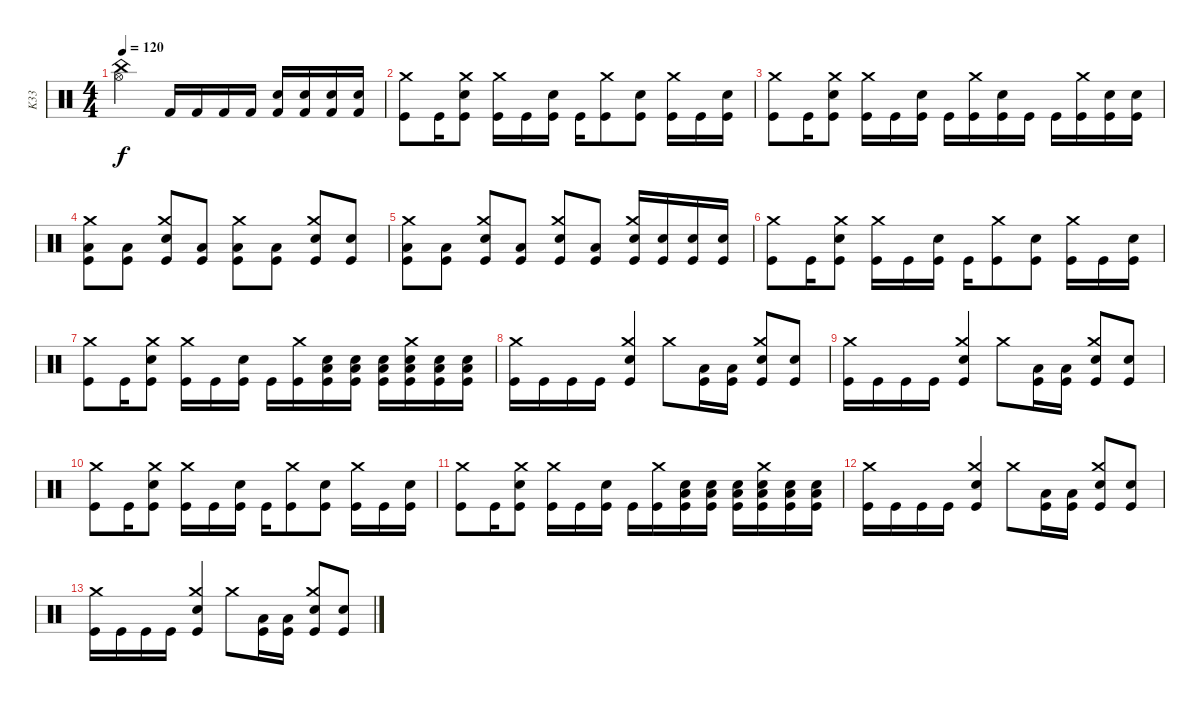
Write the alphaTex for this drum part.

\track ("K33" "K33") {instrument percussion}
\staff {score}
\articulation defaults
\ts (4 4)
\tempo 120
\clef neutral
\ks c
("China (hit)" "Hi-Hat (open)").2{dy f} "Kick (hit) 2".16 "Kick (hit) 2".16 "Kick (hit) 2".16 "Kick (hit) 2".16 ("Electric Snare (hit)" "Kick (hit) 2").16 ("Electric Snare (hit)" "Kick (hit) 2").16 ("Electric Snare (hit)" "Kick (hit) 2").16 ("Electric Snare (hit)" "Kick (hit) 2").16 |
("Crash medium (hit)" "Kick (hit)").8 "Kick (hit)".16 ("Crash medium (hit)" "Electric Snare (hit)" "Kick (hit)").8 ("Crash medium (hit)" "Kick (hit)").16 "Kick (hit)".16 ("Electric Snare (hit)" "Kick (hit)").16 "Kick (hit)".16 ("Crash medium (hit)" "Kick (hit)").8 ("Electric Snare (hit)" "Kick (hit)").8 ("Crash medium (hit)" "Kick (hit)").16 "Kick (hit)".16 ("Electric Snare (hit)" "Kick (hit)").16 |
("Crash medium (hit)" "Kick (hit)").8 "Kick (hit)".16 ("Crash medium (hit)" "Electric Snare (hit)" "Kick (hit)").8 ("Crash medium (hit)" "Kick (hit)").16 "Kick (hit)".16 ("Electric Snare (hit)" "Kick (hit)").16 "Kick (hit)".16 ("Crash medium (hit)" "Kick (hit)").16 ("Electric Snare (hit)" "Kick (hit)").16 "Kick (hit)".16 "Kick (hit)".16 ("Crash medium (hit)" "Kick (hit)").16 ("Electric Snare (hit)" "Kick (hit)").16 ("Electric Snare (hit)" "Kick (hit)").16 |
("Crash medium (hit)" "Low Floor Tom (hit)" "Kick (hit)").8 ("Low Floor Tom (hit)" "Kick (hit)").8 ("Crash medium (hit)" "Electric Snare (hit)" "Kick (hit)").8 ("Low Floor Tom (hit)" "Kick (hit)").8 ("Crash medium (hit)" "Low Floor Tom (hit)" "Kick (hit)").8 ("Low Floor Tom (hit)" "Kick (hit)").8 ("Crash medium (hit)" "Electric Snare (hit)" "Kick (hit)").8 ("Electric Snare (hit)" "Kick (hit)").8 |
("Crash medium (hit)" "Low Floor Tom (hit)" "Kick (hit)").8 ("Low Floor Tom (hit)" "Kick (hit)").8 ("Crash medium (hit)" "Electric Snare (hit)" "Kick (hit)").8 ("Low Floor Tom (hit)" "Kick (hit)").8 ("Crash medium (hit)" "Electric Snare (hit)" "Kick (hit)").8 ("Low Floor Tom (hit)" "Kick (hit)").8 ("Crash medium (hit)" "Electric Snare (hit)" "Kick (hit)").16 ("Electric Snare (hit)" "Kick (hit)").16 ("Electric Snare (hit)" "Kick (hit)").16 ("Electric Snare (hit)" "Kick (hit)").16 |
("Crash medium (hit)" "Kick (hit)").8 "Kick (hit)".16 ("Crash medium (hit)" "Electric Snare (hit)" "Kick (hit)").8 ("Crash medium (hit)" "Kick (hit)").16 "Kick (hit)".16 ("Electric Snare (hit)" "Kick (hit)").16 "Kick (hit)".16 ("Crash medium (hit)" "Kick (hit)").8 ("Electric Snare (hit)" "Kick (hit)").8 ("Crash medium (hit)" "Kick (hit)").16 "Kick (hit)".16 ("Electric Snare (hit)" "Kick (hit)").16 |
("Crash medium (hit)" "Kick (hit)").8 "Kick (hit)".16 ("Crash medium (hit)" "Electric Snare (hit)" "Kick (hit)").8 ("Crash medium (hit)" "Kick (hit)").16 "Kick (hit)".16 ("Electric Snare (hit)" "Kick (hit)").16 "Kick (hit)".16 ("Crash medium (hit)" "Kick (hit)").16 ("Low Floor Tom (hit)" "Electric Snare (hit)" "Kick (hit)").16 ("Low Floor Tom (hit)" "Electric Snare (hit)" "Kick (hit)").16 ("Low Floor Tom (hit)" "Electric Snare (hit)" "Kick (hit)").16 ("Crash medium (hit)" "Low Floor Tom (hit)" "Electric Snare (hit)" "Kick (hit)").16 ("Low Floor Tom (hit)" "Electric Snare (hit)" "Kick (hit)").16 ("Low Floor Tom (hit)" "Electric Snare (hit)" "Kick (hit)").16 |
("Crash medium (hit)" "Kick (hit)").16 "Kick (hit)".16 "Kick (hit)".16 "Kick (hit)".16 ("Crash medium (hit)" "Electric Snare (hit)" "Kick (hit)").4 "Crash medium (hit)".8 ("Low Floor Tom (hit)" "Kick (hit)").16 ("Low Floor Tom (hit)" "Kick (hit)").16 ("Crash medium (hit)" "Electric Snare (hit)" "Kick (hit)").8 ("Electric Snare (hit)" "Kick (hit)").8 |
("Crash medium (hit)" "Kick (hit)").16 "Kick (hit)".16 "Kick (hit)".16 "Kick (hit)".16 ("Crash medium (hit)" "Electric Snare (hit)" "Kick (hit)").4 "Crash medium (hit)".8 ("Low Floor Tom (hit)" "Kick (hit)").16 ("Low Floor Tom (hit)" "Kick (hit)").16 ("Crash medium (hit)" "Electric Snare (hit)" "Kick (hit)").8 ("Electric Snare (hit)" "Kick (hit)").8 |
("Crash medium (hit)" "Kick (hit)").8 "Kick (hit)".16 ("Crash medium (hit)" "Electric Snare (hit)" "Kick (hit)").8 ("Crash medium (hit)" "Kick (hit)").16 "Kick (hit)".16 ("Electric Snare (hit)" "Kick (hit)").16 "Kick (hit)".16 ("Crash medium (hit)" "Kick (hit)").8 ("Electric Snare (hit)" "Kick (hit)").8 ("Crash medium (hit)" "Kick (hit)").16 "Kick (hit)".16 ("Electric Snare (hit)" "Kick (hit)").16 |
("Crash medium (hit)" "Kick (hit)").8 "Kick (hit)".16 ("Crash medium (hit)" "Electric Snare (hit)" "Kick (hit)").8 ("Crash medium (hit)" "Kick (hit)").16 "Kick (hit)".16 ("Electric Snare (hit)" "Kick (hit)").16 "Kick (hit)".16 ("Crash medium (hit)" "Kick (hit)").16 ("Low Floor Tom (hit)" "Electric Snare (hit)" "Kick (hit)").16 ("Low Floor Tom (hit)" "Electric Snare (hit)" "Kick (hit)").16 ("Low Floor Tom (hit)" "Electric Snare (hit)" "Kick (hit)").16 ("Crash medium (hit)" "Low Floor Tom (hit)" "Electric Snare (hit)" "Kick (hit)").16 ("Low Floor Tom (hit)" "Electric Snare (hit)" "Kick (hit)").16 ("Low Floor Tom (hit)" "Electric Snare (hit)" "Kick (hit)").16 |
("Crash medium (hit)" "Kick (hit)").16 "Kick (hit)".16 "Kick (hit)".16 "Kick (hit)".16 ("Crash medium (hit)" "Electric Snare (hit)" "Kick (hit)").4 "Crash medium (hit)".8 ("Low Floor Tom (hit)" "Kick (hit)").16 ("Low Floor Tom (hit)" "Kick (hit)").16 ("Crash medium (hit)" "Electric Snare (hit)" "Kick (hit)").8 ("Electric Snare (hit)" "Kick (hit)").8 |
("Crash medium (hit)" "Kick (hit)").16 "Kick (hit)".16 "Kick (hit)".16 "Kick (hit)".16 ("Crash medium (hit)" "Electric Snare (hit)" "Kick (hit)").4 "Crash medium (hit)".8 ("Low Floor Tom (hit)" "Kick (hit)").16 ("Low Floor Tom (hit)" "Kick (hit)").16 ("Crash medium (hit)" "Electric Snare (hit)" "Kick (hit)").8 ("Electric Snare (hit)" "Kick (hit)").8
